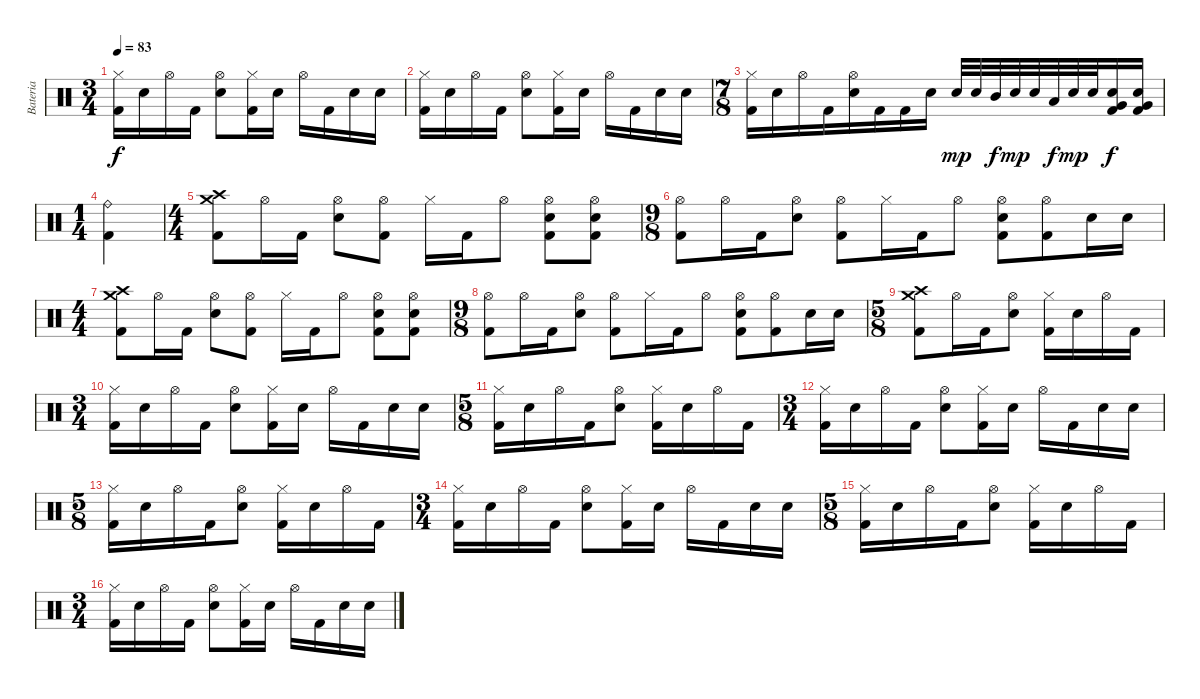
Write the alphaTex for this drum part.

\track ("Bateria" "Bateria") {instrument percussion}
\staff {score}
\articulation defaults
\ts (3 4)
\tempo 83
\clef neutral
\ks c
("Hi-Hat (closed)" "Kick (hit) 2").16{dy f} "Snare (hit) 2".16 "Hi-Hat (open)".16 "Kick (hit) 2".16 ("Hi-Hat (open)" "Snare (hit) 2").8 ("Hi-Hat (closed)" "Kick (hit) 2").16 "Snare (hit) 2".16 "Hi-Hat (open)".16 "Kick (hit) 2".16 "Snare (hit) 2".16 "Snare (hit) 2".16 |
("Hi-Hat (closed)" "Kick (hit) 2").16 "Snare (hit) 2".16 "Hi-Hat (open)".16 "Kick (hit) 2".16 ("Hi-Hat (open)" "Snare (hit) 2").8 ("Hi-Hat (closed)" "Kick (hit) 2").16 "Snare (hit) 2".16 "Hi-Hat (open)".16 "Kick (hit) 2".16 "Snare (hit) 2".16 "Snare (hit) 2".16 |
\ts (7 8)
("Hi-Hat (closed)" "Kick (hit) 2").16 "Snare (hit) 2".16 "Hi-Hat (open)".16 "Kick (hit) 2".16 ("Hi-Hat (open)" "Snare (hit) 2").16 "Kick (hit) 2".16 "Kick (hit) 2".16 "Snare (hit) 2".16 "Snare (hit) 2".32{dy mp} "Snare (hit) 2".32 "Mid Tom (hit)".32{dy f} "Snare (hit) 2".32{dy mp} "Snare (hit) 2".32 "Low Tom (hit)".32{dy f} "Snare (hit) 2".32{dy mp} "Snare (hit) 2".32 ("Very Low Tom (hit)" "Snare (hit) 2" "Kick (hit) 2").16{dy f} ("Very Low Tom (hit)" "Snare (hit) 2" "Kick (hit) 2").16 |
\ts (1 4)
("Ride (bell)" "Kick (hit) 2").4 |
\ts (4 4)
("Crash high (hit)" "Crash medium (hit)" "Kick (hit) 2").8 "Hi-Hat (open)".16 "Kick (hit) 2".16 ("Hi-Hat (open)" "Snare (hit) 2").8 ("Hi-Hat (open)" "Kick (hit) 2").8 "Hi-Hat (closed)".16 "Kick (hit) 2".16 "Hi-Hat (open)".8 ("Hi-Hat (open)" "Snare (hit) 2" "Kick (hit) 2").8 ("Hi-Hat (open)" "Snare (hit) 2" "Kick (hit) 2").8 |
\ts (9 8)
("Hi-Hat (open)" "Kick (hit) 2").8 "Hi-Hat (open)".16 "Kick (hit) 2".16 ("Hi-Hat (open)" "Snare (hit) 2").8 ("Hi-Hat (open)" "Kick (hit) 2").8 "Hi-Hat (closed)".16 "Kick (hit) 2".16 "Hi-Hat (open)".8 ("Hi-Hat (open)" "Snare (hit) 2" "Kick (hit) 2").8 ("Hi-Hat (open)" "Kick (hit) 2").8 "Snare (hit) 2".16 "Snare (hit) 2".16 |
\ts (4 4)
("Crash high (hit)" "Crash medium (hit)" "Kick (hit) 2").8 "Hi-Hat (open)".16 "Kick (hit) 2".16 ("Hi-Hat (open)" "Snare (hit) 2").8 ("Hi-Hat (open)" "Kick (hit) 2").8 "Hi-Hat (closed)".16 "Kick (hit) 2".16 "Hi-Hat (open)".8 ("Hi-Hat (open)" "Snare (hit) 2" "Kick (hit) 2").8 ("Hi-Hat (open)" "Snare (hit) 2" "Kick (hit) 2").8 |
\ts (9 8)
("Hi-Hat (open)" "Kick (hit) 2").8 "Hi-Hat (open)".16 "Kick (hit) 2".16 ("Hi-Hat (open)" "Snare (hit) 2").8 ("Hi-Hat (open)" "Kick (hit) 2").8 "Hi-Hat (closed)".16 "Kick (hit) 2".16 "Hi-Hat (open)".8 ("Hi-Hat (open)" "Snare (hit) 2" "Kick (hit) 2").8 ("Hi-Hat (open)" "Kick (hit) 2").8 "Snare (hit) 2".16 "Snare (hit) 2".16 |
\ts (5 8)
("Crash medium (hit)" "Crash high (hit)" "Kick (hit) 2").8 "Hi-Hat (open)".16 "Kick (hit) 2".16 ("Hi-Hat (open)" "Snare (hit) 2").8 ("Hi-Hat (closed)" "Kick (hit) 2").16 "Snare (hit) 2".16 "Hi-Hat (open)".16 "Kick (hit) 2".16 |
\ts (3 4)
("Hi-Hat (closed)" "Kick (hit) 2").16 "Snare (hit) 2".16 "Hi-Hat (open)".16 "Kick (hit) 2".16 ("Hi-Hat (open)" "Snare (hit) 2").8 ("Hi-Hat (closed)" "Kick (hit) 2").16 "Snare (hit) 2".16 "Hi-Hat (open)".16 "Kick (hit) 2".16 "Snare (hit) 2".16 "Snare (hit) 2".16 |
\ts (5 8)
("Hi-Hat (closed)" "Kick (hit) 2").16 "Snare (hit) 2".16 "Hi-Hat (open)".16 "Kick (hit) 2".16 ("Hi-Hat (open)" "Snare (hit) 2").8 ("Hi-Hat (closed)" "Kick (hit) 2").16 "Snare (hit) 2".16 "Hi-Hat (open)".16 "Kick (hit) 2".16 |
\ts (3 4)
("Hi-Hat (closed)" "Kick (hit) 2").16 "Snare (hit) 2".16 "Hi-Hat (open)".16 "Kick (hit) 2".16 ("Hi-Hat (open)" "Snare (hit) 2").8 ("Hi-Hat (closed)" "Kick (hit) 2").16 "Snare (hit) 2".16 "Hi-Hat (open)".16 "Kick (hit) 2".16 "Snare (hit) 2".16 "Snare (hit) 2".16 |
\ts (5 8)
("Hi-Hat (closed)" "Kick (hit) 2").16 "Snare (hit) 2".16 "Hi-Hat (open)".16 "Kick (hit) 2".16 ("Hi-Hat (open)" "Snare (hit) 2").8 ("Hi-Hat (closed)" "Kick (hit) 2").16 "Snare (hit) 2".16 "Hi-Hat (open)".16 "Kick (hit) 2".16 |
\ts (3 4)
("Hi-Hat (closed)" "Kick (hit) 2").16 "Snare (hit) 2".16 "Hi-Hat (open)".16 "Kick (hit) 2".16 ("Hi-Hat (open)" "Snare (hit) 2").8 ("Hi-Hat (closed)" "Kick (hit) 2").16 "Snare (hit) 2".16 "Hi-Hat (open)".16 "Kick (hit) 2".16 "Snare (hit) 2".16 "Snare (hit) 2".16 |
\ts (5 8)
("Hi-Hat (closed)" "Kick (hit) 2").16 "Snare (hit) 2".16 "Hi-Hat (open)".16 "Kick (hit) 2".16 ("Hi-Hat (open)" "Snare (hit) 2").8 ("Hi-Hat (closed)" "Kick (hit) 2").16 "Snare (hit) 2".16 "Hi-Hat (open)".16 "Kick (hit) 2".16 |
\ts (3 4)
("Hi-Hat (closed)" "Kick (hit) 2").16 "Snare (hit) 2".16 "Hi-Hat (open)".16 "Kick (hit) 2".16 ("Hi-Hat (open)" "Snare (hit) 2").8 ("Hi-Hat (closed)" "Kick (hit) 2").16 "Snare (hit) 2".16 "Hi-Hat (open)".16 "Kick (hit) 2".16 "Snare (hit) 2".16 "Snare (hit) 2".16
